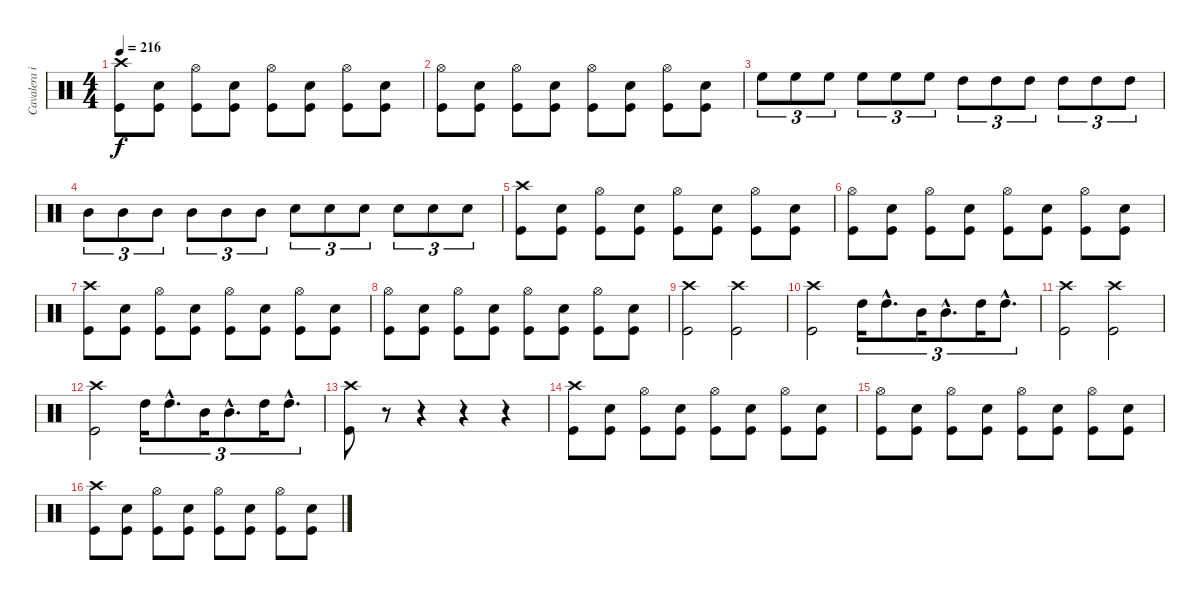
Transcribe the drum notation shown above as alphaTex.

\track ("Cavalera igor" "Cavalera i") {instrument percussion}
\staff {score}
\articulation defaults
\ts (4 4)
\tempo 216
\clef neutral
\ks c
("Crash high (hit)" "Kick (hit)").8{dy f} ("Electric Snare (hit)" "Kick (hit)").8 ("Hi-Hat (open)" "Kick (hit)").8 ("Electric Snare (hit)" "Kick (hit)").8 ("Hi-Hat (open)" "Kick (hit)").8 ("Electric Snare (hit)" "Kick (hit)").8 ("Hi-Hat (open)" "Kick (hit)").8 ("Electric Snare (hit)" "Kick (hit)").8 |
("Hi-Hat (open)" "Kick (hit)").8 ("Electric Snare (hit)" "Kick (hit)").8 ("Hi-Hat (open)" "Kick (hit)").8 ("Electric Snare (hit)" "Kick (hit)").8 ("Hi-Hat (open)" "Kick (hit)").8 ("Electric Snare (hit)" "Kick (hit)").8 ("Hi-Hat (open)" "Kick (hit)").8 ("Electric Snare (hit)" "Kick (hit)").8 |
"High Floor Tom (hit)".8{tu (3 2)} "High Floor Tom (hit)".8{tu (3 2)} "High Floor Tom (hit)".8{tu (3 2)} "High Floor Tom (hit)".8{tu (3 2)} "High Floor Tom (hit)".8{tu (3 2)} "High Floor Tom (hit)".8{tu (3 2)} "High Tom (hit)".8{tu (3 2)} "High Tom (hit)".8{tu (3 2)} "High Tom (hit)".8{tu (3 2)} "High Tom (hit)".8{tu (3 2)} "High Tom (hit)".8{tu (3 2)} "High Tom (hit)".8{tu (3 2)} |
"Mid Tom (hit)".8{tu (3 2)} "Mid Tom (hit)".8{tu (3 2)} "Mid Tom (hit)".8{tu (3 2)} "Mid Tom (hit)".8{tu (3 2)} "Mid Tom (hit)".8{tu (3 2)} "Mid Tom (hit)".8{tu (3 2)} "Electric Snare (hit)".8{tu (3 2)} "Electric Snare (hit)".8{tu (3 2)} "Electric Snare (hit)".8{tu (3 2)} "Electric Snare (hit)".8{tu (3 2)} "Electric Snare (hit)".8{tu (3 2)} "Electric Snare (hit)".8{tu (3 2)} |
("Crash high (hit)" "Kick (hit)").8 ("Electric Snare (hit)" "Kick (hit)").8 ("Hi-Hat (open)" "Kick (hit)").8 ("Electric Snare (hit)" "Kick (hit)").8 ("Hi-Hat (open)" "Kick (hit)").8 ("Electric Snare (hit)" "Kick (hit)").8 ("Hi-Hat (open)" "Kick (hit)").8 ("Electric Snare (hit)" "Kick (hit)").8 |
("Hi-Hat (open)" "Kick (hit)").8 ("Electric Snare (hit)" "Kick (hit)").8 ("Hi-Hat (open)" "Kick (hit)").8 ("Electric Snare (hit)" "Kick (hit)").8 ("Hi-Hat (open)" "Kick (hit)").8 ("Electric Snare (hit)" "Kick (hit)").8 ("Hi-Hat (open)" "Kick (hit)").8 ("Electric Snare (hit)" "Kick (hit)").8 |
("Crash high (hit)" "Kick (hit)").8 ("Electric Snare (hit)" "Kick (hit)").8 ("Hi-Hat (open)" "Kick (hit)").8 ("Electric Snare (hit)" "Kick (hit)").8 ("Hi-Hat (open)" "Kick (hit)").8 ("Electric Snare (hit)" "Kick (hit)").8 ("Hi-Hat (open)" "Kick (hit)").8 ("Electric Snare (hit)" "Kick (hit)").8 |
("Hi-Hat (open)" "Kick (hit)").8 ("Electric Snare (hit)" "Kick (hit)").8 ("Hi-Hat (open)" "Kick (hit)").8 ("Electric Snare (hit)" "Kick (hit)").8 ("Hi-Hat (open)" "Kick (hit)").8 ("Electric Snare (hit)" "Kick (hit)").8 ("Hi-Hat (open)" "Kick (hit)").8 ("Electric Snare (hit)" "Kick (hit)").8 |
("Crash high (hit)" "Kick (hit)").2 ("Crash high (hit)" "Kick (hit)").2 |
("Crash high (hit)" "Kick (hit)").2 "High Tom (hit)".16{tu (3 2)} "High Tom (hit)"{hac}.8{d tu (3 2)} "Mid Tom (hit)".16{tu (3 2)} "Mid Tom (hit)"{hac}.8{d tu (3 2)} "High Tom (hit)".16{tu (3 2)} "High Tom (hit)"{hac}.8{d tu (3 2)} |
("Crash high (hit)" "Kick (hit)").2 ("Crash high (hit)" "Kick (hit)").2 |
("Crash high (hit)" "Kick (hit)").2 "High Tom (hit)".16{tu (3 2)} "High Tom (hit)"{hac}.8{d tu (3 2)} "Mid Tom (hit)".16{tu (3 2)} "Mid Tom (hit)"{hac}.8{d tu (3 2)} "High Tom (hit)".16{tu (3 2)} "High Tom (hit)"{hac}.8{d tu (3 2)} |
("Crash high (hit)" "Kick (hit)").8 r.8{volume 0} r.4 r.4{volume 16} r.4 |
("Crash high (hit)" "Kick (hit)").8 ("Electric Snare (hit)" "Kick (hit)").8 ("Hi-Hat (open)" "Kick (hit)").8 ("Electric Snare (hit)" "Kick (hit)").8 ("Hi-Hat (open)" "Kick (hit)").8 ("Electric Snare (hit)" "Kick (hit)").8 ("Hi-Hat (open)" "Kick (hit)").8 ("Electric Snare (hit)" "Kick (hit)").8 |
("Hi-Hat (open)" "Kick (hit)").8 ("Electric Snare (hit)" "Kick (hit)").8 ("Hi-Hat (open)" "Kick (hit)").8 ("Electric Snare (hit)" "Kick (hit)").8 ("Hi-Hat (open)" "Kick (hit)").8 ("Electric Snare (hit)" "Kick (hit)").8 ("Hi-Hat (open)" "Kick (hit)").8 ("Electric Snare (hit)" "Kick (hit)").8 |
("Crash high (hit)" "Kick (hit)").8 ("Electric Snare (hit)" "Kick (hit)").8 ("Hi-Hat (open)" "Kick (hit)").8 ("Electric Snare (hit)" "Kick (hit)").8 ("Hi-Hat (open)" "Kick (hit)").8 ("Electric Snare (hit)" "Kick (hit)").8 ("Hi-Hat (open)" "Kick (hit)").8 ("Electric Snare (hit)" "Kick (hit)").8
